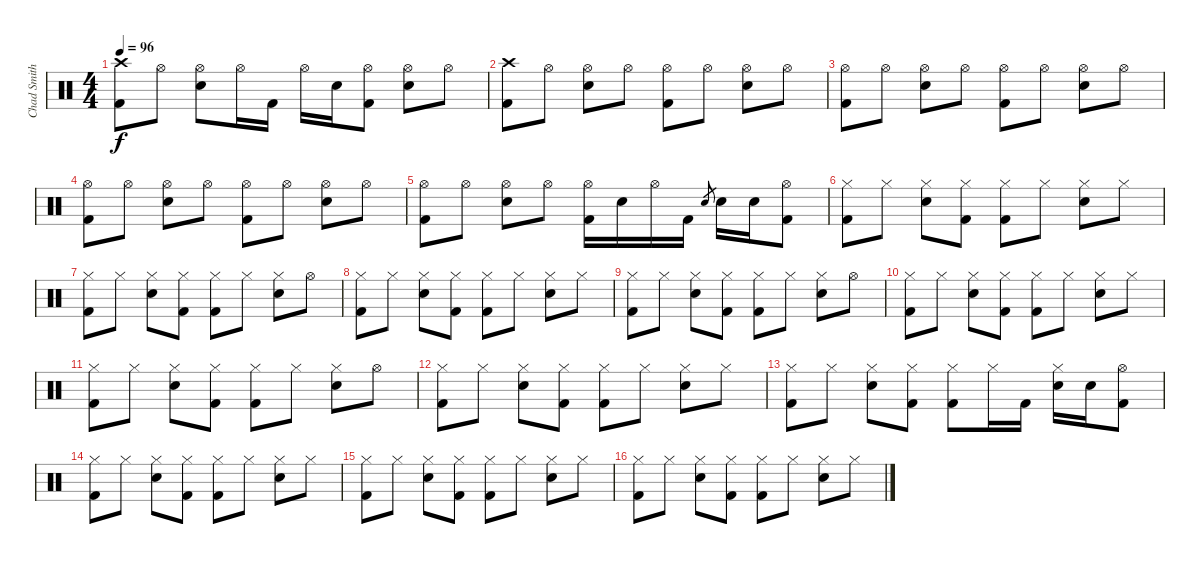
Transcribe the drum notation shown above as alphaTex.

\track ("Chad Smith" "Chad Smith") {instrument percussion}
\staff {score}
\articulation defaults
\ts (4 4)
\tempo 96
\clef neutral
\ks c
("Crash high (hit)" "Kick (hit) 2").8{dy f} "Hi-Hat (open)".8 ("Hi-Hat (open)" "Electric Snare (hit)").8 "Hi-Hat (open)".16 "Kick (hit) 2".16 "Hi-Hat (open)".16 "Electric Snare (hit)".16 ("Hi-Hat (open)" "Kick (hit) 2").8 ("Hi-Hat (open)" "Electric Snare (hit)").8 "Hi-Hat (open)".8 |
("Crash high (hit)" "Kick (hit) 2").8 "Hi-Hat (open)".8 ("Hi-Hat (open)" "Electric Snare (hit)").8 "Hi-Hat (open)".8 ("Hi-Hat (open)" "Kick (hit) 2").8 "Hi-Hat (open)".8 ("Hi-Hat (open)" "Electric Snare (hit)").8 "Hi-Hat (open)".8 |
("Hi-Hat (open)" "Kick (hit) 2").8 "Hi-Hat (open)".8 ("Hi-Hat (open)" "Electric Snare (hit)").8 "Hi-Hat (open)".8 ("Hi-Hat (open)" "Kick (hit) 2").8 "Hi-Hat (open)".8 ("Hi-Hat (open)" "Electric Snare (hit)").8 "Hi-Hat (open)".8 |
("Hi-Hat (open)" "Kick (hit) 2").8 "Hi-Hat (open)".8 ("Hi-Hat (open)" "Electric Snare (hit)").8 "Hi-Hat (open)".8 ("Hi-Hat (open)" "Kick (hit) 2").8 "Hi-Hat (open)".8 ("Hi-Hat (open)" "Electric Snare (hit)").8 "Hi-Hat (open)".8 |
("Hi-Hat (open)" "Kick (hit) 2").8 "Hi-Hat (open)".8 ("Hi-Hat (open)" "Electric Snare (hit)").8 "Hi-Hat (open)".8 ("Hi-Hat (open)" "Kick (hit) 2").16 "Electric Snare (hit)".16 "Hi-Hat (open)".16 "Kick (hit) 2".16 "Electric Snare (hit)".8{gr} "Electric Snare (hit)".16 "Electric Snare (hit)".16 ("Hi-Hat (open)" "Kick (hit) 2").8 |
("Hi-Hat (closed)" "Kick (hit) 2").8 "Hi-Hat (closed)".8 ("Hi-Hat (closed)" "Electric Snare (hit)").8 ("Hi-Hat (closed)" "Kick (hit) 2").8 ("Hi-Hat (closed)" "Kick (hit) 2").8 "Hi-Hat (closed)".8 ("Hi-Hat (closed)" "Electric Snare (hit)").8 "Hi-Hat (closed)".8 |
("Hi-Hat (closed)" "Kick (hit) 2").8 "Hi-Hat (closed)".8 ("Hi-Hat (closed)" "Electric Snare (hit)").8 ("Hi-Hat (closed)" "Kick (hit) 2").8 ("Hi-Hat (closed)" "Kick (hit) 2").8 "Hi-Hat (closed)".8 ("Hi-Hat (closed)" "Electric Snare (hit)").8 "Hi-Hat (open)".8 |
("Hi-Hat (closed)" "Kick (hit) 2").8 "Hi-Hat (closed)".8 ("Hi-Hat (closed)" "Electric Snare (hit)").8 ("Hi-Hat (closed)" "Kick (hit) 2").8 ("Hi-Hat (closed)" "Kick (hit) 2").8 "Hi-Hat (closed)".8 ("Hi-Hat (closed)" "Electric Snare (hit)").8 "Hi-Hat (closed)".8 |
("Hi-Hat (closed)" "Kick (hit) 2").8 "Hi-Hat (closed)".8 ("Hi-Hat (closed)" "Electric Snare (hit)").8 ("Hi-Hat (closed)" "Kick (hit) 2").8 ("Hi-Hat (closed)" "Kick (hit) 2").8 "Hi-Hat (closed)".8 ("Hi-Hat (closed)" "Electric Snare (hit)").8 "Hi-Hat (open)".8 |
("Hi-Hat (closed)" "Kick (hit) 2").8 "Hi-Hat (closed)".8 ("Hi-Hat (closed)" "Electric Snare (hit)").8 ("Hi-Hat (closed)" "Kick (hit) 2").8 ("Hi-Hat (closed)" "Kick (hit) 2").8 "Hi-Hat (closed)".8 ("Hi-Hat (closed)" "Electric Snare (hit)").8 "Hi-Hat (closed)".8 |
("Hi-Hat (closed)" "Kick (hit) 2").8 "Hi-Hat (closed)".8 ("Hi-Hat (closed)" "Electric Snare (hit)").8 ("Hi-Hat (closed)" "Kick (hit) 2").8 ("Hi-Hat (closed)" "Kick (hit) 2").8 "Hi-Hat (closed)".8 ("Hi-Hat (closed)" "Electric Snare (hit)").8 "Hi-Hat (open)".8 |
("Hi-Hat (closed)" "Kick (hit) 2").8 "Hi-Hat (closed)".8 ("Hi-Hat (closed)" "Electric Snare (hit)").8 ("Hi-Hat (closed)" "Kick (hit) 2").8 ("Hi-Hat (closed)" "Kick (hit) 2").8 "Hi-Hat (closed)".8 ("Hi-Hat (closed)" "Electric Snare (hit)").8 "Hi-Hat (closed)".8 |
("Hi-Hat (closed)" "Kick (hit) 2").8 "Hi-Hat (closed)".8 ("Hi-Hat (closed)" "Electric Snare (hit)").8 ("Hi-Hat (closed)" "Kick (hit) 2").8 ("Hi-Hat (closed)" "Kick (hit) 2").8 "Hi-Hat (closed)".16 "Kick (hit) 2".16 ("Hi-Hat (closed)" "Electric Snare (hit)").16 "Electric Snare (hit)".16 ("Hi-Hat (open)" "Kick (hit) 2").8 |
("Hi-Hat (closed)" "Kick (hit) 2").8 "Hi-Hat (closed)".8 ("Hi-Hat (closed)" "Electric Snare (hit)").8 ("Hi-Hat (closed)" "Kick (hit) 2").8 ("Hi-Hat (closed)" "Kick (hit) 2").8 "Hi-Hat (closed)".8 ("Hi-Hat (closed)" "Electric Snare (hit)").8 "Hi-Hat (closed)".8 |
("Hi-Hat (closed)" "Kick (hit) 2").8 "Hi-Hat (closed)".8 ("Hi-Hat (closed)" "Electric Snare (hit)").8 ("Hi-Hat (closed)" "Kick (hit) 2").8 ("Hi-Hat (closed)" "Kick (hit) 2").8 "Hi-Hat (closed)".8 ("Hi-Hat (closed)" "Electric Snare (hit)").8 "Hi-Hat (closed)".8 |
("Hi-Hat (closed)" "Kick (hit) 2").8 "Hi-Hat (closed)".8 ("Hi-Hat (closed)" "Electric Snare (hit)").8 ("Hi-Hat (closed)" "Kick (hit) 2").8 ("Hi-Hat (closed)" "Kick (hit) 2").8 "Hi-Hat (closed)".8 ("Hi-Hat (closed)" "Electric Snare (hit)").8 "Hi-Hat (closed)".8
